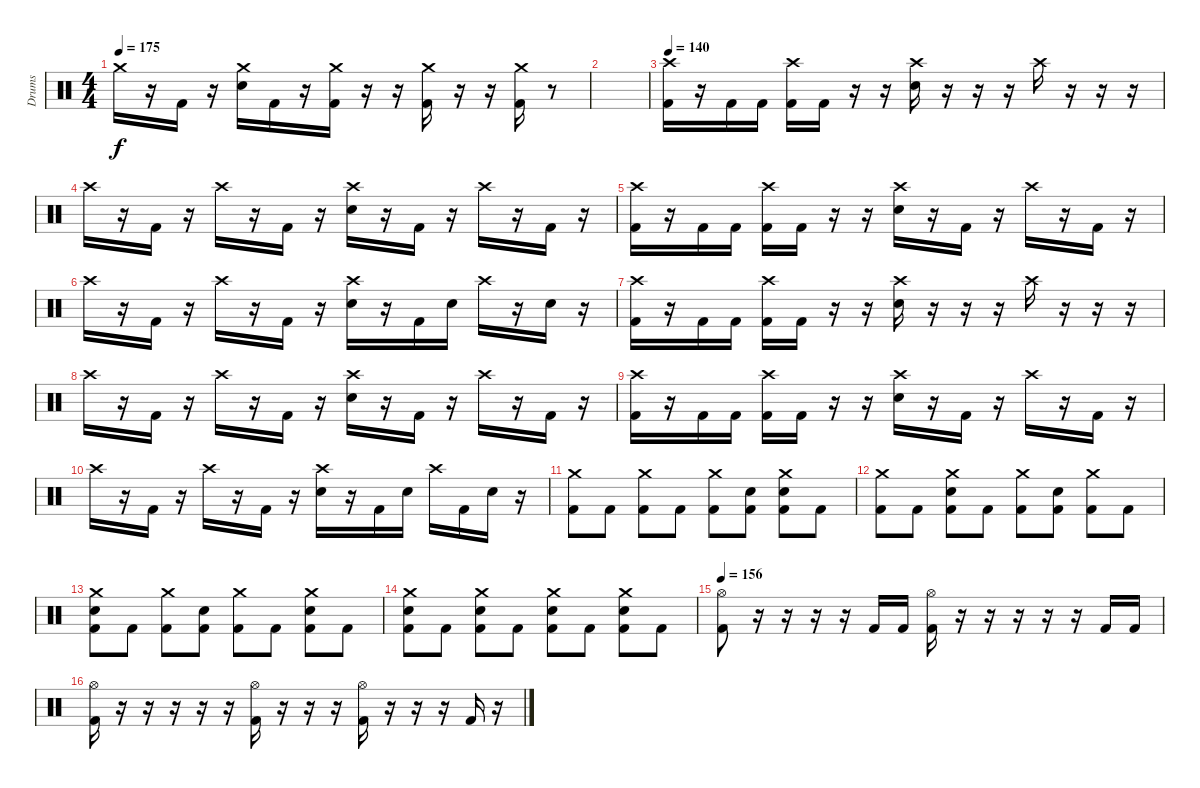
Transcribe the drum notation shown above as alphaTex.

\track ("Drums" "Drums") {instrument percussion}
\staff {score}
\articulation defaults
\ts (4 4)
\tempo 175
\clef neutral
\ks c "Crash medium (hit)".16{dy f}
r.16 "Kick (hit) 2".16 r.16 ("Crash medium (hit)" "Electric Snare (hit)").16 "Kick (hit) 2".16 r.16 ("Crash medium (hit)" "Kick (hit) 2").16 r.16 r.16 ("Crash medium (hit)" "Kick (hit) 2").16 r.16 r.16 ("Crash medium (hit)" "Kick (hit) 2").16 r.8 |
|
\tempo 140
("Crash high (hit)" "Kick (hit) 2").16 r.16 "Kick (hit) 2".16 "Kick (hit) 2".16 ("Crash high (hit)" "Kick (hit) 2").16 "Kick (hit) 2".16 r.16 r.16 ("Crash high (hit)" "Electric Snare (hit)").16 r.16 r.16 r.16 "Crash high (hit)".16 r.16 r.16 r.16 |
"Crash high (hit)".16 r.16 "Kick (hit) 2".16 r.16 "Crash high (hit)".16 r.16 "Kick (hit) 2".16 r.16 ("Crash high (hit)" "Electric Snare (hit)").16 r.16 "Kick (hit) 2".16 r.16 "Crash high (hit)".16 r.16 "Kick (hit) 2".16 r.16 |
("Crash high (hit)" "Kick (hit) 2").16 r.16 "Kick (hit) 2".16 "Kick (hit) 2".16 ("Crash high (hit)" "Kick (hit) 2").16 "Kick (hit) 2".16 r.16 r.16 ("Crash high (hit)" "Electric Snare (hit)").16 r.16 "Kick (hit) 2".16 r.16 "Crash high (hit)".16 r.16 "Kick (hit) 2".16 r.16 |
"Crash high (hit)".16 r.16 "Kick (hit) 2".16 r.16 "Crash high (hit)".16 r.16 "Kick (hit) 2".16 r.16 ("Crash high (hit)" "Electric Snare (hit)").16 r.16 "Kick (hit) 2".16 "Electric Snare (hit)".16 "Crash high (hit)".16 r.16 "Electric Snare (hit)".16 r.16 |
("Crash high (hit)" "Kick (hit) 2").16 r.16 "Kick (hit) 2".16 "Kick (hit) 2".16 ("Crash high (hit)" "Kick (hit) 2").16 "Kick (hit) 2".16 r.16 r.16 ("Crash high (hit)" "Electric Snare (hit)").16 r.16 r.16 r.16 "Crash high (hit)".16 r.16 r.16 r.16 |
"Crash high (hit)".16 r.16 "Kick (hit) 2".16 r.16 "Crash high (hit)".16 r.16 "Kick (hit) 2".16 r.16 ("Crash high (hit)" "Electric Snare (hit)").16 r.16 "Kick (hit) 2".16 r.16 "Crash high (hit)".16 r.16 "Kick (hit) 2".16 r.16 |
("Crash high (hit)" "Kick (hit) 2").16 r.16 "Kick (hit) 2".16 "Kick (hit) 2".16 ("Crash high (hit)" "Kick (hit) 2").16 "Kick (hit) 2".16 r.16 r.16 ("Crash high (hit)" "Electric Snare (hit)").16 r.16 "Kick (hit) 2".16 r.16 "Crash high (hit)".16 r.16 "Kick (hit) 2".16 r.16 |
"Crash high (hit)".16 r.16 "Kick (hit) 2".16 r.16 "Crash high (hit)".16 r.16 "Kick (hit) 2".16 r.16 ("Crash high (hit)" "Electric Snare (hit)").16 r.16 "Kick (hit) 2".16 "Electric Snare (hit)".16 "Crash high (hit)".16 "Kick (hit) 2".16 "Electric Snare (hit)".16 r.16 |
("Crash medium (hit)" "Kick (hit) 2").8 "Kick (hit) 2".8 ("Crash medium (hit)" "Kick (hit) 2").8 "Kick (hit) 2".8 ("Crash medium (hit)" "Kick (hit) 2").8 ("Electric Snare (hit)" "Kick (hit) 2").8 ("Crash medium (hit)" "Electric Snare (hit)" "Kick (hit) 2").8 "Kick (hit) 2".8 |
("Crash medium (hit)" "Kick (hit) 2").8 "Kick (hit) 2".8 ("Crash medium (hit)" "Electric Snare (hit)" "Kick (hit) 2").8 "Kick (hit) 2".8 ("Crash medium (hit)" "Kick (hit) 2").8 ("Electric Snare (hit)" "Kick (hit) 2").8 ("Crash medium (hit)" "Kick (hit) 2").8 "Kick (hit) 2".8 |
("Crash medium (hit)" "Electric Snare (hit)" "Kick (hit) 2").8 "Kick (hit) 2".8 ("Crash medium (hit)" "Kick (hit) 2").8 ("Electric Snare (hit)" "Kick (hit) 2").8 ("Crash medium (hit)" "Kick (hit) 2").8 "Kick (hit) 2".8 ("Crash medium (hit)" "Electric Snare (hit)" "Kick (hit) 2").8 "Kick (hit) 2".8 |
("Crash medium (hit)" "Electric Snare (hit)" "Kick (hit) 2").8 "Kick (hit) 2".8 ("Crash medium (hit)" "Electric Snare (hit)" "Kick (hit) 2").8 "Kick (hit) 2".8 ("Crash medium (hit)" "Electric Snare (hit)" "Kick (hit) 2").8 "Kick (hit) 2".8 ("Crash medium (hit)" "Electric Snare (hit)" "Kick (hit) 2").8 "Kick (hit) 2".8 |
\tempo 156
("Hi-Hat (open)" "Kick (hit) 2").8 r.16 r.16 r.16 r.16 "Kick (hit) 2".16 "Kick (hit) 2".16 ("Hi-Hat (open)" "Kick (hit) 2").16 r.16 r.16 r.16 r.16 r.16 "Kick (hit) 2".16 "Kick (hit) 2".16 |
("Hi-Hat (open)" "Kick (hit) 2").16 r.16 r.16 r.16 r.16 r.16 ("Hi-Hat (open)" "Kick (hit) 2").16 r.16 r.16 r.16 ("Hi-Hat (open)" "Kick (hit) 2").16 r.16 r.16 r.16 "Kick (hit) 2".16 r.16
